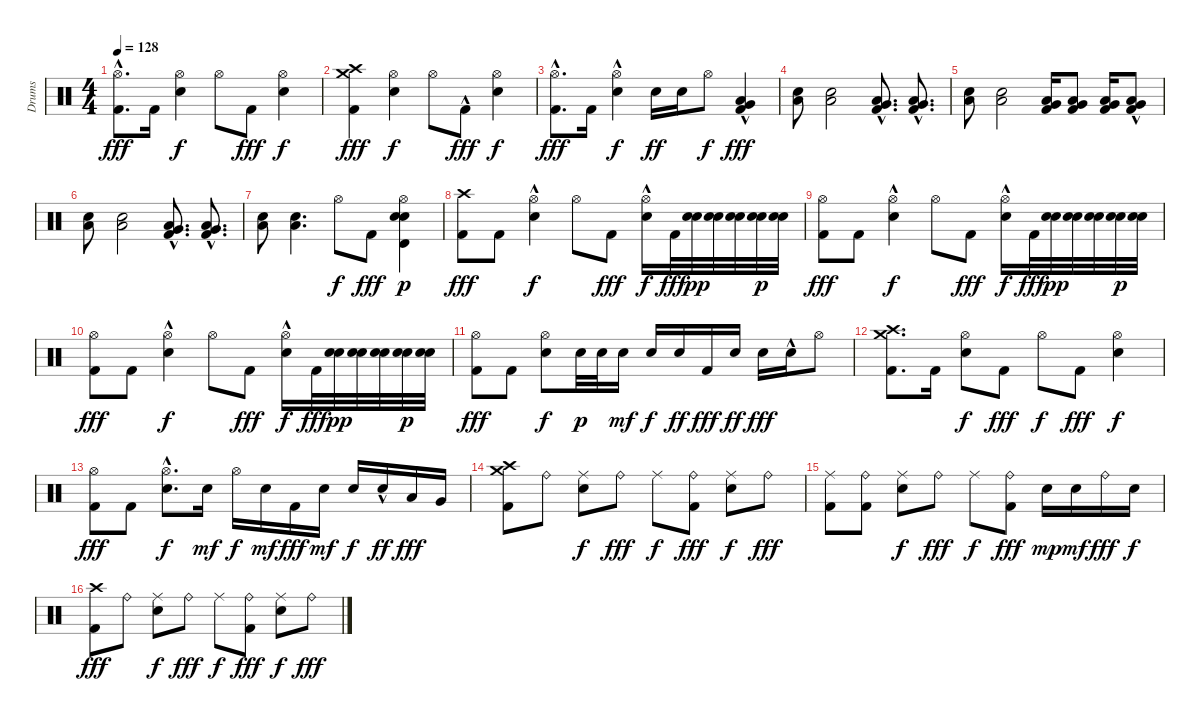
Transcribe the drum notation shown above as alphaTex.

\track ("Drums" "Drums") {instrument percussion}
\staff {score}
\articulation defaults
\ts (4 4)
\tempo 128
\clef neutral
\ks c
("Hi-Hat (open)" "Kick (hit) 2"{hac}).8{d dy fff} "Kick (hit) 2".16 ("Hi-Hat (open)" "Snare (hit) 2").4{dy f} "Hi-Hat (open)".8 "Kick (hit) 2".8{dy fff} ("Hi-Hat (open)" "Snare (hit) 2").4{dy f} |
("Crash high (hit)" "Crash medium (hit)" "Kick (hit) 2").4{dy fff} ("Hi-Hat (open)" "Snare (hit) 2").4{dy f} "Hi-Hat (open)".8 "Kick (hit) 2"{hac}.8{dy fff} ("Hi-Hat (open)" "Snare (hit) 2").4{dy f} |
("Hi-Hat (open)" "Kick (hit) 2"{hac}).8{d dy fff} "Kick (hit) 2".16 ("Hi-Hat (open)"{hac} "Snare (hit) 2").4{dy f} "Snare (hit) 2".16{dy ff} "Snare (hit) 2".16 "Hi-Hat (open)".8{dy f} ("Low Floor Tom (hit)" "Very Low Tom (hit)" "Kick (hit) 2"{hac}).4{dy fff} |
("Snare (hit) 2" "Low Floor Tom (hit)").8 ("Snare (hit) 2" "Low Floor Tom (hit)").2 ("Very Low Tom (hit)"{hac} "Low Floor Tom (hit)"{hac} "Kick (hit) 2"{hac}).8{d} ("Very Low Tom (hit)"{hac} "Low Floor Tom (hit)"{hac} "Kick (hit) 2"{hac}).8{d} |
("Snare (hit) 2" "Low Floor Tom (hit)").8 ("Snare (hit) 2" "Low Floor Tom (hit)").2 ("Very Low Tom (hit)" "Low Floor Tom (hit)" "Kick (hit) 2").16 ("Very Low Tom (hit)" "Low Floor Tom (hit)" "Kick (hit) 2").8 ("Very Low Tom (hit)" "Low Floor Tom (hit)" "Kick (hit) 2").16 ("Very Low Tom (hit)" "Low Floor Tom (hit)" "Kick (hit) 2"{hac}).8 |
("Snare (hit) 2" "Low Floor Tom (hit)").8 ("Snare (hit) 2" "Low Floor Tom (hit)").2 ("Very Low Tom (hit)"{hac} "Low Floor Tom (hit)"{hac} "Kick (hit) 2"{hac}).8{d} ("Very Low Tom (hit)"{hac} "Low Floor Tom (hit)"{hac} "Kick (hit) 2"{hac}).8{d} |
("Snare (hit) 2" "Low Floor Tom (hit)").8 ("Snare (hit) 2" "Low Floor Tom (hit)").4{d} "Hi-Hat (open)".8{dy f} "Kick (hit) 2".8{dy fff} ("Hi-Hat (open)" "Snare (hit) 2" "Electric Snare (hit)" "Timbale high (hit)").4{dy p} |
("Crash high (hit)" "Kick (hit) 2").8{dy fff} "Kick (hit) 2".8 ("Hi-Hat (open)" "Snare (hit) 2"{hac}).4{dy f} "Hi-Hat (open)".8 "Kick (hit) 2".8{dy fff} ("Hi-Hat (open)" "Snare (hit) 2"{hac}).16{dy f} "Kick (hit) 2".32{dy fff} ("Snare (hit) 2" "Snare (hit) 2").32{dy pp} ("Snare (hit) 2" "Snare (hit) 2").32 ("Snare (hit) 2" "Snare (hit) 2").32 ("Snare (hit) 2" "Snare (hit) 2").32{dy p} ("Snare (hit) 2" "Snare (hit) 2").32 |
("Hi-Hat (open)" "Kick (hit) 2").8{dy fff} "Kick (hit) 2".8 ("Hi-Hat (open)" "Snare (hit) 2"{hac}).4{dy f} "Hi-Hat (open)".8 "Kick (hit) 2".8{dy fff} ("Hi-Hat (open)" "Snare (hit) 2"{hac}).16{dy f} "Kick (hit) 2".32{dy fff} ("Snare (hit) 2" "Snare (hit) 2").32{dy pp} ("Snare (hit) 2" "Snare (hit) 2").32 ("Snare (hit) 2" "Snare (hit) 2").32 ("Snare (hit) 2" "Snare (hit) 2").32{dy p} ("Snare (hit) 2" "Snare (hit) 2").32 |
("Hi-Hat (open)" "Kick (hit) 2").8{dy fff} "Kick (hit) 2".8 ("Hi-Hat (open)" "Snare (hit) 2"{hac}).4{dy f} "Hi-Hat (open)".8 "Kick (hit) 2".8{dy fff} ("Hi-Hat (open)" "Snare (hit) 2"{hac}).16{dy f} "Kick (hit) 2".32{dy fff} ("Snare (hit) 2" "Snare (hit) 2").32{dy pp} ("Snare (hit) 2" "Snare (hit) 2").32 ("Snare (hit) 2" "Snare (hit) 2").32 ("Snare (hit) 2" "Snare (hit) 2").32{dy p} ("Snare (hit) 2" "Snare (hit) 2").32 |
("Hi-Hat (open)" "Kick (hit) 2").8{dy fff} "Kick (hit) 2".8 ("Hi-Hat (open)" "Snare (hit) 2").8{dy f} "Snare (hit) 2".32{dy p} "Snare (hit) 2".32 "Snare (hit) 2".16{dy mf} "Snare (hit) 2".16{dy f} "Snare (hit) 2".16{dy ff} "Kick (hit) 2".16{dy fff} "Snare (hit) 2".16{dy ff} "Snare (hit) 2".16{dy fff} "Snare (hit) 2"{hac}.16 "Hi-Hat (open)".8 |
("Crash high (hit)" "Crash medium (hit)" "Kick (hit) 2").8{d} "Kick (hit) 2".16 ("Hi-Hat (open)" "Snare (hit) 2").8{dy f} "Kick (hit) 2".8{dy fff} "Hi-Hat (open)".8{dy f} "Kick (hit) 2".8{dy fff} ("Hi-Hat (open)" "Snare (hit) 2").4{dy f} |
("Hi-Hat (open)" "Kick (hit) 2").8{dy fff} "Kick (hit) 2".8 ("Hi-Hat (open)" "Snare (hit) 2"{hac}).8{d dy f} "Snare (hit) 2".16{dy mf} "Hi-Hat (open)".16{dy f} "Snare (hit) 2".16{dy mf} "Kick (hit) 2".16{dy fff} "Snare (hit) 2".16{dy mf} "Snare (hit) 2".16{dy f} "Snare (hit) 2"{hac}.16{dy ff} "Low Tom (hit)".16{dy fff} "Very Low Tom (hit)".16 |
("Crash high (hit)" "Crash medium (hit)" "Kick (hit) 2").8 "Ride (bell)".8 ("Ride (middle)" "Snare (hit) 2").8{dy f} "Ride (bell)".8{dy fff} "Ride (middle)".8{dy f} ("Ride (bell)" "Kick (hit) 2").8{dy fff} ("Ride (middle)" "Snare (hit) 2").8{dy f} "Ride (bell)".8{dy fff} |
("Ride (middle)" "Kick (hit) 2").8 ("Ride (bell)" "Kick (hit) 2").8 ("Ride (middle)" "Snare (hit) 2").8{dy f} "Ride (bell)".8{dy fff} "Ride (middle)".8{dy f} ("Ride (bell)" "Kick (hit) 2").8{dy fff} "Snare (hit) 2".16{dy mp} "Snare (hit) 2".16{dy mf} "Ride (bell)".16{dy fff} "Snare (hit) 2".16{dy f} |
("Crash high (hit)" "Kick (hit) 2").8{dy fff} "Ride (bell)".8 ("Ride (middle)" "Snare (hit) 2").8{dy f} "Ride (bell)".8{dy fff} "Ride (middle)".8{dy f} ("Ride (bell)" "Kick (hit) 2").8{dy fff} ("Ride (middle)" "Snare (hit) 2").8{dy f} "Ride (bell)".8{dy fff}
